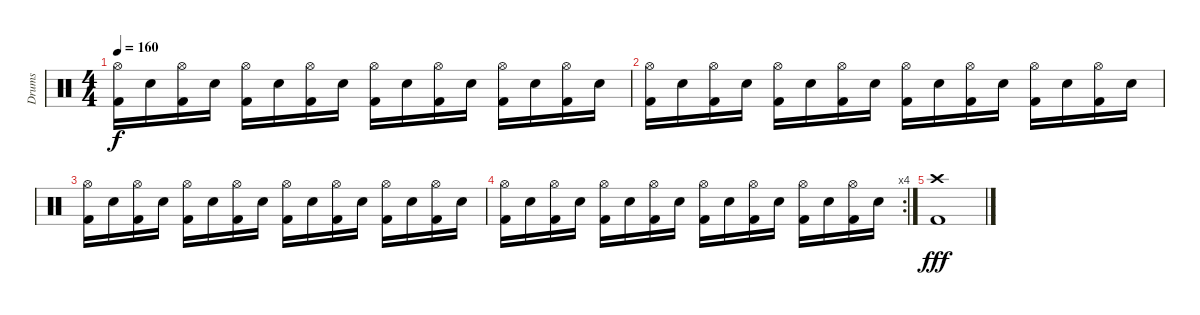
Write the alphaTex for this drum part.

\track ("Drums" "Drums") {instrument percussion}
\staff {score}
\articulation defaults
\ts (4 4)
\tempo 160
\clef neutral
\ks c
("Hi-Hat (open)" "Kick (hit) 2").16{dy f} "Snare (hit) 2".16 ("Hi-Hat (open)" "Kick (hit) 2").16 "Snare (hit) 2".16 ("Hi-Hat (open)" "Kick (hit) 2").16 "Snare (hit) 2".16 ("Hi-Hat (open)" "Kick (hit) 2").16 "Snare (hit) 2".16 ("Hi-Hat (open)" "Kick (hit) 2").16 "Snare (hit) 2".16 ("Hi-Hat (open)" "Kick (hit) 2").16 "Snare (hit) 2".16 ("Hi-Hat (open)" "Kick (hit) 2").16 "Snare (hit) 2".16 ("Hi-Hat (open)" "Kick (hit) 2").16 "Snare (hit) 2".16 |
("Hi-Hat (open)" "Kick (hit) 2").16 "Snare (hit) 2".16 ("Hi-Hat (open)" "Kick (hit) 2").16 "Snare (hit) 2".16 ("Hi-Hat (open)" "Kick (hit) 2").16 "Snare (hit) 2".16 ("Hi-Hat (open)" "Kick (hit) 2").16 "Snare (hit) 2".16 ("Hi-Hat (open)" "Kick (hit) 2").16 "Snare (hit) 2".16 ("Hi-Hat (open)" "Kick (hit) 2").16 "Snare (hit) 2".16 ("Hi-Hat (open)" "Kick (hit) 2").16 "Snare (hit) 2".16 ("Hi-Hat (open)" "Kick (hit) 2").16 "Snare (hit) 2".16 |
("Hi-Hat (open)" "Kick (hit) 2").16 "Snare (hit) 2".16 ("Hi-Hat (open)" "Kick (hit) 2").16 "Snare (hit) 2".16 ("Hi-Hat (open)" "Kick (hit) 2").16 "Snare (hit) 2".16 ("Hi-Hat (open)" "Kick (hit) 2").16 "Snare (hit) 2".16 ("Hi-Hat (open)" "Kick (hit) 2").16 "Snare (hit) 2".16 ("Hi-Hat (open)" "Kick (hit) 2").16 "Snare (hit) 2".16 ("Hi-Hat (open)" "Kick (hit) 2").16 "Snare (hit) 2".16 ("Hi-Hat (open)" "Kick (hit) 2").16 "Snare (hit) 2".16 |
\rc 4
("Hi-Hat (open)" "Kick (hit) 2").16 "Snare (hit) 2".16 ("Hi-Hat (open)" "Kick (hit) 2").16 "Snare (hit) 2".16 ("Hi-Hat (open)" "Kick (hit) 2").16 "Snare (hit) 2".16 ("Hi-Hat (open)" "Kick (hit) 2").16 "Snare (hit) 2".16 ("Hi-Hat (open)" "Kick (hit) 2").16 "Snare (hit) 2".16 ("Hi-Hat (open)" "Kick (hit) 2").16 "Snare (hit) 2".16 ("Hi-Hat (open)" "Kick (hit) 2").16 "Snare (hit) 2".16 ("Hi-Hat (open)" "Kick (hit) 2").16 "Snare (hit) 2".16 |
("Crash high (hit)" "Kick (hit) 2").1{dy fff}
